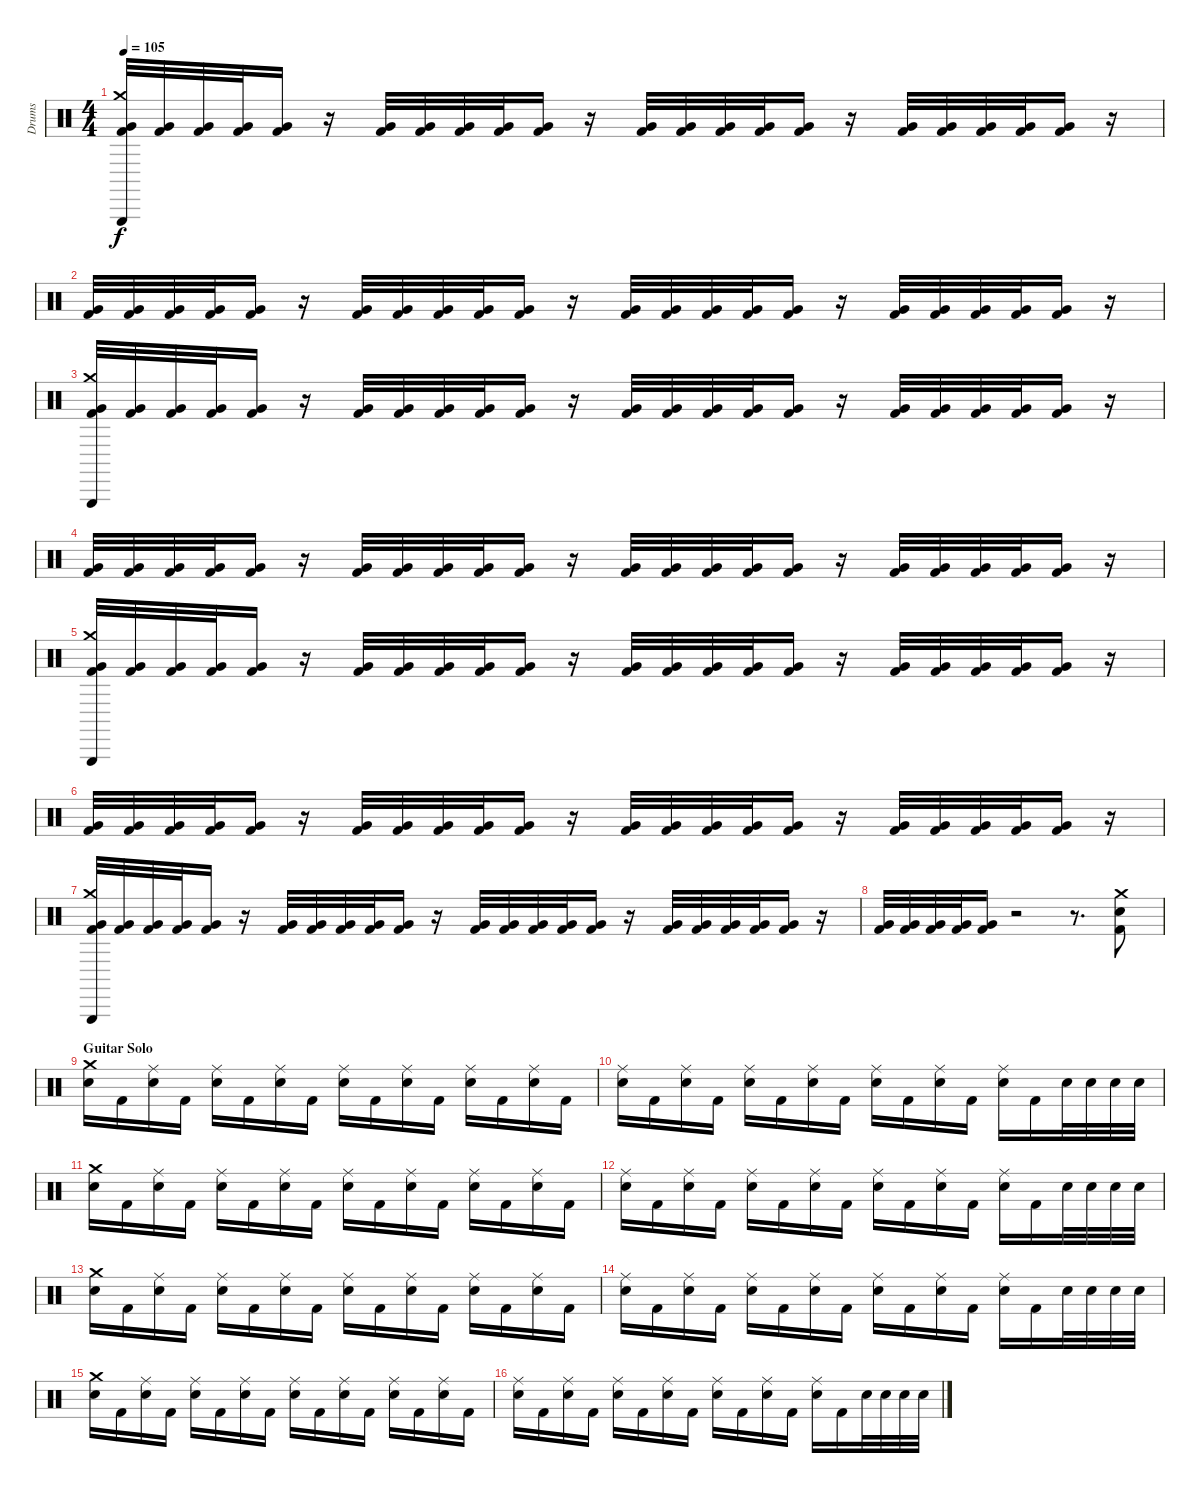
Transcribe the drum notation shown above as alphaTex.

\track ("Drums" "Drums") {instrument percussion}
\staff {score}
\articulation defaults
\ts (4 4)
\tempo 105
\clef neutral
\ks c
("Triangle (hit)" "Crash medium (hit)" "Very Low Tom (hit)" "Kick (hit) 2").32{dy f} ("Very Low Tom (hit)" "Kick (hit) 2").32 ("Very Low Tom (hit)" "Kick (hit) 2").32 ("Very Low Tom (hit)" "Kick (hit) 2").32 ("Very Low Tom (hit)" "Kick (hit) 2").16 r.16 ("Very Low Tom (hit)" "Kick (hit) 2").32 ("Very Low Tom (hit)" "Kick (hit) 2").32 ("Very Low Tom (hit)" "Kick (hit) 2").32 ("Very Low Tom (hit)" "Kick (hit) 2").32 ("Very Low Tom (hit)" "Kick (hit) 2").16 r.16 ("Very Low Tom (hit)" "Kick (hit) 2").32 ("Very Low Tom (hit)" "Kick (hit) 2").32 ("Very Low Tom (hit)" "Kick (hit) 2").32 ("Very Low Tom (hit)" "Kick (hit) 2").32 ("Very Low Tom (hit)" "Kick (hit) 2").16 r.16 ("Very Low Tom (hit)" "Kick (hit) 2").32 ("Very Low Tom (hit)" "Kick (hit) 2").32 ("Very Low Tom (hit)" "Kick (hit) 2").32 ("Very Low Tom (hit)" "Kick (hit) 2").32 ("Very Low Tom (hit)" "Kick (hit) 2").16 r.16 |
("Very Low Tom (hit)" "Kick (hit) 2").32 ("Very Low Tom (hit)" "Kick (hit) 2").32 ("Very Low Tom (hit)" "Kick (hit) 2").32 ("Very Low Tom (hit)" "Kick (hit) 2").32 ("Very Low Tom (hit)" "Kick (hit) 2").16 r.16 ("Very Low Tom (hit)" "Kick (hit) 2").32 ("Very Low Tom (hit)" "Kick (hit) 2").32 ("Very Low Tom (hit)" "Kick (hit) 2").32 ("Very Low Tom (hit)" "Kick (hit) 2").32 ("Very Low Tom (hit)" "Kick (hit) 2").16 r.16 ("Very Low Tom (hit)" "Kick (hit) 2").32 ("Very Low Tom (hit)" "Kick (hit) 2").32 ("Very Low Tom (hit)" "Kick (hit) 2").32 ("Very Low Tom (hit)" "Kick (hit) 2").32 ("Very Low Tom (hit)" "Kick (hit) 2").16 r.16 ("Very Low Tom (hit)" "Kick (hit) 2").32 ("Very Low Tom (hit)" "Kick (hit) 2").32 ("Very Low Tom (hit)" "Kick (hit) 2").32 ("Very Low Tom (hit)" "Kick (hit) 2").32 ("Very Low Tom (hit)" "Kick (hit) 2").16 r.16 |
("Triangle (hit)" "Crash medium (hit)" "Very Low Tom (hit)" "Kick (hit) 2").32 ("Very Low Tom (hit)" "Kick (hit) 2").32 ("Very Low Tom (hit)" "Kick (hit) 2").32 ("Very Low Tom (hit)" "Kick (hit) 2").32 ("Very Low Tom (hit)" "Kick (hit) 2").16 r.16 ("Very Low Tom (hit)" "Kick (hit) 2").32 ("Very Low Tom (hit)" "Kick (hit) 2").32 ("Very Low Tom (hit)" "Kick (hit) 2").32 ("Very Low Tom (hit)" "Kick (hit) 2").32 ("Very Low Tom (hit)" "Kick (hit) 2").16 r.16 ("Very Low Tom (hit)" "Kick (hit) 2").32 ("Very Low Tom (hit)" "Kick (hit) 2").32 ("Very Low Tom (hit)" "Kick (hit) 2").32 ("Very Low Tom (hit)" "Kick (hit) 2").32 ("Very Low Tom (hit)" "Kick (hit) 2").16 r.16 ("Very Low Tom (hit)" "Kick (hit) 2").32 ("Very Low Tom (hit)" "Kick (hit) 2").32 ("Very Low Tom (hit)" "Kick (hit) 2").32 ("Very Low Tom (hit)" "Kick (hit) 2").32 ("Very Low Tom (hit)" "Kick (hit) 2").16 r.16 |
("Very Low Tom (hit)" "Kick (hit) 2").32 ("Very Low Tom (hit)" "Kick (hit) 2").32 ("Very Low Tom (hit)" "Kick (hit) 2").32 ("Very Low Tom (hit)" "Kick (hit) 2").32 ("Very Low Tom (hit)" "Kick (hit) 2").16 r.16 ("Very Low Tom (hit)" "Kick (hit) 2").32 ("Very Low Tom (hit)" "Kick (hit) 2").32 ("Very Low Tom (hit)" "Kick (hit) 2").32 ("Very Low Tom (hit)" "Kick (hit) 2").32 ("Very Low Tom (hit)" "Kick (hit) 2").16 r.16 ("Very Low Tom (hit)" "Kick (hit) 2").32 ("Very Low Tom (hit)" "Kick (hit) 2").32 ("Very Low Tom (hit)" "Kick (hit) 2").32 ("Very Low Tom (hit)" "Kick (hit) 2").32 ("Very Low Tom (hit)" "Kick (hit) 2").16 r.16 ("Very Low Tom (hit)" "Kick (hit) 2").32 ("Very Low Tom (hit)" "Kick (hit) 2").32 ("Very Low Tom (hit)" "Kick (hit) 2").32 ("Very Low Tom (hit)" "Kick (hit) 2").32 ("Very Low Tom (hit)" "Kick (hit) 2").16 r.16 |
("Triangle (hit)" "Crash medium (hit)" "Very Low Tom (hit)" "Kick (hit) 2").32 ("Very Low Tom (hit)" "Kick (hit) 2").32 ("Very Low Tom (hit)" "Kick (hit) 2").32 ("Very Low Tom (hit)" "Kick (hit) 2").32 ("Very Low Tom (hit)" "Kick (hit) 2").16 r.16 ("Very Low Tom (hit)" "Kick (hit) 2").32 ("Very Low Tom (hit)" "Kick (hit) 2").32 ("Very Low Tom (hit)" "Kick (hit) 2").32 ("Very Low Tom (hit)" "Kick (hit) 2").32 ("Very Low Tom (hit)" "Kick (hit) 2").16 r.16 ("Very Low Tom (hit)" "Kick (hit) 2").32 ("Very Low Tom (hit)" "Kick (hit) 2").32 ("Very Low Tom (hit)" "Kick (hit) 2").32 ("Very Low Tom (hit)" "Kick (hit) 2").32 ("Very Low Tom (hit)" "Kick (hit) 2").16 r.16 ("Very Low Tom (hit)" "Kick (hit) 2").32 ("Very Low Tom (hit)" "Kick (hit) 2").32 ("Very Low Tom (hit)" "Kick (hit) 2").32 ("Very Low Tom (hit)" "Kick (hit) 2").32 ("Very Low Tom (hit)" "Kick (hit) 2").16 r.16 |
("Very Low Tom (hit)" "Kick (hit) 2").32 ("Very Low Tom (hit)" "Kick (hit) 2").32 ("Very Low Tom (hit)" "Kick (hit) 2").32 ("Very Low Tom (hit)" "Kick (hit) 2").32 ("Very Low Tom (hit)" "Kick (hit) 2").16 r.16 ("Very Low Tom (hit)" "Kick (hit) 2").32 ("Very Low Tom (hit)" "Kick (hit) 2").32 ("Very Low Tom (hit)" "Kick (hit) 2").32 ("Very Low Tom (hit)" "Kick (hit) 2").32 ("Very Low Tom (hit)" "Kick (hit) 2").16 r.16 ("Very Low Tom (hit)" "Kick (hit) 2").32 ("Very Low Tom (hit)" "Kick (hit) 2").32 ("Very Low Tom (hit)" "Kick (hit) 2").32 ("Very Low Tom (hit)" "Kick (hit) 2").32 ("Very Low Tom (hit)" "Kick (hit) 2").16 r.16 ("Very Low Tom (hit)" "Kick (hit) 2").32 ("Very Low Tom (hit)" "Kick (hit) 2").32 ("Very Low Tom (hit)" "Kick (hit) 2").32 ("Very Low Tom (hit)" "Kick (hit) 2").32 ("Very Low Tom (hit)" "Kick (hit) 2").16 r.16 |
("Triangle (hit)" "Crash medium (hit)" "Very Low Tom (hit)" "Kick (hit) 2").32 ("Very Low Tom (hit)" "Kick (hit) 2").32 ("Very Low Tom (hit)" "Kick (hit) 2").32 ("Very Low Tom (hit)" "Kick (hit) 2").32 ("Very Low Tom (hit)" "Kick (hit) 2").16 r.16 ("Very Low Tom (hit)" "Kick (hit) 2").32 ("Very Low Tom (hit)" "Kick (hit) 2").32 ("Very Low Tom (hit)" "Kick (hit) 2").32 ("Very Low Tom (hit)" "Kick (hit) 2").32 ("Very Low Tom (hit)" "Kick (hit) 2").16 r.16 ("Very Low Tom (hit)" "Kick (hit) 2").32 ("Very Low Tom (hit)" "Kick (hit) 2").32 ("Very Low Tom (hit)" "Kick (hit) 2").32 ("Very Low Tom (hit)" "Kick (hit) 2").32 ("Very Low Tom (hit)" "Kick (hit) 2").16 r.16 ("Very Low Tom (hit)" "Kick (hit) 2").32 ("Very Low Tom (hit)" "Kick (hit) 2").32 ("Very Low Tom (hit)" "Kick (hit) 2").32 ("Very Low Tom (hit)" "Kick (hit) 2").32 ("Very Low Tom (hit)" "Kick (hit) 2").16 r.16 |
("Very Low Tom (hit)" "Kick (hit) 2").32 ("Very Low Tom (hit)" "Kick (hit) 2").32 ("Very Low Tom (hit)" "Kick (hit) 2").32 ("Very Low Tom (hit)" "Kick (hit) 2").32 ("Very Low Tom (hit)" "Kick (hit) 2").16 r.2 r.8{d} ("Crash medium (hit)" "Electric Snare (hit)" "Kick (hit) 2").8 |
\section ("" "Guitar Solo")
("Crash medium (hit)" "Electric Snare (hit)").16 "Kick (hit) 2".16 ("Ride (middle)" "Electric Snare (hit)").16 "Kick (hit) 2".16 ("Ride (middle)" "Electric Snare (hit)").16 "Kick (hit) 2".16 ("Ride (middle)" "Electric Snare (hit)").16 "Kick (hit) 2".16 ("Ride (middle)" "Electric Snare (hit)").16 "Kick (hit) 2".16 ("Ride (middle)" "Electric Snare (hit)").16 "Kick (hit) 2".16 ("Ride (middle)" "Electric Snare (hit)").16 "Kick (hit) 2".16 ("Ride (middle)" "Electric Snare (hit)").16 "Kick (hit) 2".16 |
("Ride (middle)" "Electric Snare (hit)").16 "Kick (hit) 2".16 ("Ride (middle)" "Electric Snare (hit)").16 "Kick (hit) 2".16 ("Ride (middle)" "Electric Snare (hit)").16 "Kick (hit) 2".16 ("Ride (middle)" "Electric Snare (hit)").16 "Kick (hit) 2".16 ("Ride (middle)" "Electric Snare (hit)").16 "Kick (hit) 2".16 ("Ride (middle)" "Electric Snare (hit)").16 "Kick (hit) 2".16 ("Ride (middle)" "Electric Snare (hit)").16 "Kick (hit) 2".16 "Electric Snare (hit)".32 "Electric Snare (hit)".32 "Electric Snare (hit)".32 "Electric Snare (hit)".32 |
("Crash medium (hit)" "Electric Snare (hit)").16 "Kick (hit) 2".16 ("Ride (middle)" "Electric Snare (hit)").16 "Kick (hit) 2".16 ("Ride (middle)" "Electric Snare (hit)").16 "Kick (hit) 2".16 ("Ride (middle)" "Electric Snare (hit)").16 "Kick (hit) 2".16 ("Ride (middle)" "Electric Snare (hit)").16 "Kick (hit) 2".16 ("Ride (middle)" "Electric Snare (hit)").16 "Kick (hit) 2".16 ("Ride (middle)" "Electric Snare (hit)").16 "Kick (hit) 2".16 ("Ride (middle)" "Electric Snare (hit)").16 "Kick (hit) 2".16 |
("Ride (middle)" "Electric Snare (hit)").16 "Kick (hit) 2".16 ("Ride (middle)" "Electric Snare (hit)").16 "Kick (hit) 2".16 ("Ride (middle)" "Electric Snare (hit)").16 "Kick (hit) 2".16 ("Ride (middle)" "Electric Snare (hit)").16 "Kick (hit) 2".16 ("Ride (middle)" "Electric Snare (hit)").16 "Kick (hit) 2".16 ("Ride (middle)" "Electric Snare (hit)").16 "Kick (hit) 2".16 ("Ride (middle)" "Electric Snare (hit)").16 "Kick (hit) 2".16 "Electric Snare (hit)".32 "Electric Snare (hit)".32 "Electric Snare (hit)".32 "Electric Snare (hit)".32 |
("Crash medium (hit)" "Electric Snare (hit)").16 "Kick (hit) 2".16 ("Ride (middle)" "Electric Snare (hit)").16 "Kick (hit) 2".16 ("Ride (middle)" "Electric Snare (hit)").16 "Kick (hit) 2".16 ("Ride (middle)" "Electric Snare (hit)").16 "Kick (hit) 2".16 ("Ride (middle)" "Electric Snare (hit)").16 "Kick (hit) 2".16 ("Ride (middle)" "Electric Snare (hit)").16 "Kick (hit) 2".16 ("Ride (middle)" "Electric Snare (hit)").16 "Kick (hit) 2".16 ("Ride (middle)" "Electric Snare (hit)").16 "Kick (hit) 2".16 |
("Ride (middle)" "Electric Snare (hit)").16 "Kick (hit) 2".16 ("Ride (middle)" "Electric Snare (hit)").16 "Kick (hit) 2".16 ("Ride (middle)" "Electric Snare (hit)").16 "Kick (hit) 2".16 ("Ride (middle)" "Electric Snare (hit)").16 "Kick (hit) 2".16 ("Ride (middle)" "Electric Snare (hit)").16 "Kick (hit) 2".16 ("Ride (middle)" "Electric Snare (hit)").16 "Kick (hit) 2".16 ("Ride (middle)" "Electric Snare (hit)").16 "Kick (hit) 2".16 "Electric Snare (hit)".32 "Electric Snare (hit)".32 "Electric Snare (hit)".32 "Electric Snare (hit)".32 |
("Crash medium (hit)" "Electric Snare (hit)").16 "Kick (hit) 2".16 ("Ride (middle)" "Electric Snare (hit)").16 "Kick (hit) 2".16 ("Ride (middle)" "Electric Snare (hit)").16 "Kick (hit) 2".16 ("Ride (middle)" "Electric Snare (hit)").16 "Kick (hit) 2".16 ("Ride (middle)" "Electric Snare (hit)").16 "Kick (hit) 2".16 ("Ride (middle)" "Electric Snare (hit)").16 "Kick (hit) 2".16 ("Ride (middle)" "Electric Snare (hit)").16 "Kick (hit) 2".16 ("Ride (middle)" "Electric Snare (hit)").16 "Kick (hit) 2".16 |
("Ride (middle)" "Electric Snare (hit)").16 "Kick (hit) 2".16 ("Ride (middle)" "Electric Snare (hit)").16 "Kick (hit) 2".16 ("Ride (middle)" "Electric Snare (hit)").16 "Kick (hit) 2".16 ("Ride (middle)" "Electric Snare (hit)").16 "Kick (hit) 2".16 ("Ride (middle)" "Electric Snare (hit)").16 "Kick (hit) 2".16 ("Ride (middle)" "Electric Snare (hit)").16 "Kick (hit) 2".16 ("Ride (middle)" "Electric Snare (hit)").16 "Kick (hit) 2".16 "Electric Snare (hit)".32 "Electric Snare (hit)".32 "Electric Snare (hit)".32 "Electric Snare (hit)".32
